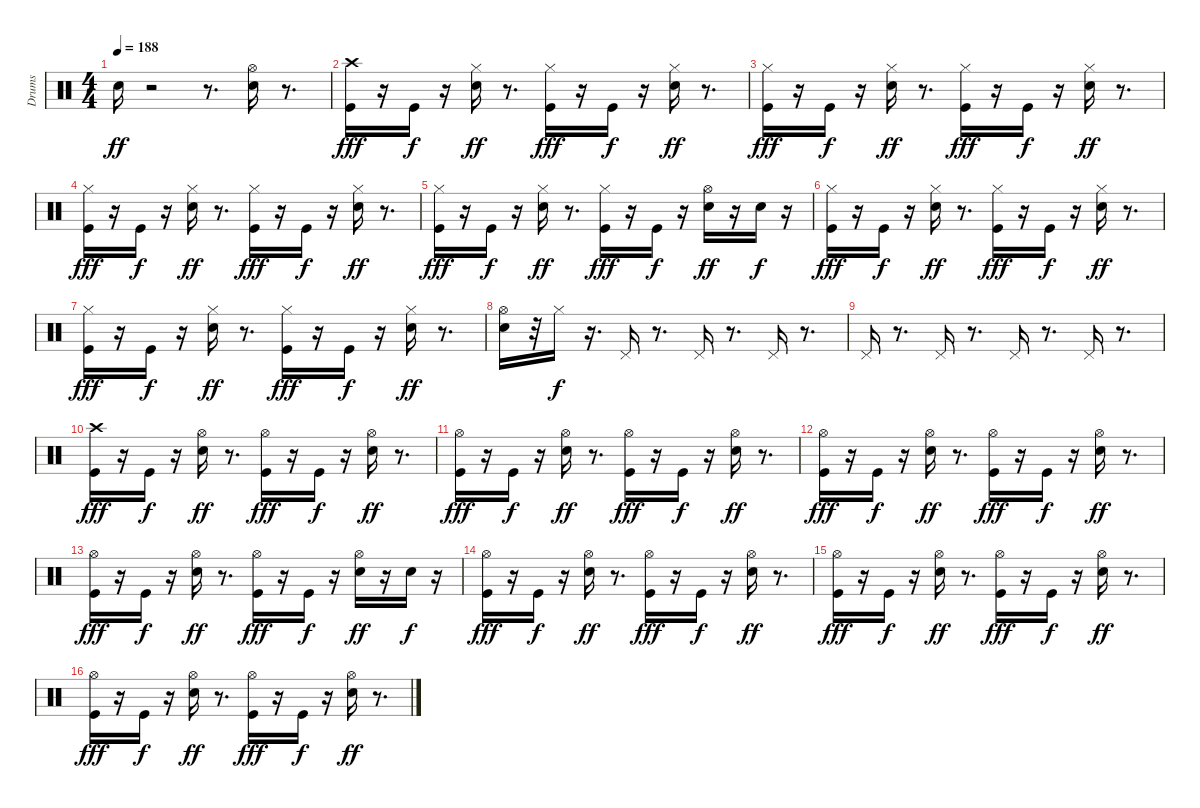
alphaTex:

\track ("Drums" "Drums") {instrument percussion}
\staff {score}
\articulation defaults
\ts (4 4)
\tempo 188
\clef neutral
\ks c "Electric Snare (hit)".16{dy ff}
r.2 r.8{d} ("Hi-Hat (open)" "Electric Snare (hit)").16 r.8{d} |
("Crash high (hit)" "Kick (hit)").16{dy fff} r.16 "Kick (hit)".16{dy f} r.16 ("Electric Snare (hit)" "Hi-Hat (closed)").16{dy ff} r.8{d} ("Hi-Hat (closed)" "Kick (hit)").16{dy fff} r.16 "Kick (hit)".16{dy f} r.16 ("Electric Snare (hit)" "Hi-Hat (closed)").16{dy ff} r.8{d} |
("Hi-Hat (closed)" "Kick (hit)").16{dy fff} r.16 "Kick (hit)".16{dy f} r.16 ("Electric Snare (hit)" "Hi-Hat (closed)").16{dy ff} r.8{d} ("Hi-Hat (closed)" "Kick (hit)").16{dy fff} r.16 "Kick (hit)".16{dy f} r.16 ("Electric Snare (hit)" "Hi-Hat (closed)").16{dy ff} r.8{d} |
("Hi-Hat (closed)" "Kick (hit)").16{dy fff} r.16 "Kick (hit)".16{dy f} r.16 ("Electric Snare (hit)" "Hi-Hat (closed)").16{dy ff} r.8{d} ("Hi-Hat (closed)" "Kick (hit)").16{dy fff} r.16 "Kick (hit)".16{dy f} r.16 ("Electric Snare (hit)" "Hi-Hat (closed)").16{dy ff} r.8{d} |
("Hi-Hat (closed)" "Kick (hit)").16{dy fff} r.16 "Kick (hit)".16{dy f} r.16 ("Electric Snare (hit)" "Hi-Hat (closed)").16{dy ff} r.8{d} ("Hi-Hat (closed)" "Kick (hit)").16{dy fff} r.16 "Kick (hit)".16{dy f} r.16 ("Electric Snare (hit)" "Hi-Hat (open)").16{dy ff} r.16 "Electric Snare (hit)".16{dy f} r.16 |
("Hi-Hat (closed)" "Kick (hit)").16{dy fff} r.16 "Kick (hit)".16{dy f} r.16 ("Electric Snare (hit)" "Hi-Hat (closed)").16{dy ff} r.8{d} ("Hi-Hat (closed)" "Kick (hit)").16{dy fff} r.16 "Kick (hit)".16{dy f} r.16 ("Electric Snare (hit)" "Hi-Hat (closed)").16{dy ff} r.8{d} |
("Hi-Hat (closed)" "Kick (hit)").16{dy fff} r.16 "Kick (hit)".16{dy f} r.16 ("Electric Snare (hit)" "Hi-Hat (closed)").16{dy ff} r.8{d} ("Hi-Hat (closed)" "Kick (hit)").16{dy fff} r.16 "Kick (hit)".16{dy f} r.16 ("Electric Snare (hit)" "Hi-Hat (closed)").16{dy ff} r.8{d} |
("Hi-Hat (open)" "Electric Snare (hit)").16 r.32 "Hi-Hat (closed)".16{dy f} r.16{d} "Pedal Hi-Hat (hit)".16 r.8{d} "Pedal Hi-Hat (hit)".16 r.8{d} "Pedal Hi-Hat (hit)".16 r.8{d} |
"Pedal Hi-Hat (hit)".16 r.8{d} "Pedal Hi-Hat (hit)".16 r.8{d} "Pedal Hi-Hat (hit)".16 r.8{d} "Pedal Hi-Hat (hit)".16 r.8{d} |
("Crash high (hit)" "Kick (hit)").16{dy fff} r.16 "Kick (hit)".16{dy f} r.16 ("Hi-Hat (open)" "Electric Snare (hit)").16{dy ff} r.8{d} ("Hi-Hat (open)" "Kick (hit)").16{dy fff} r.16 "Kick (hit)".16{dy f} r.16 ("Hi-Hat (open)" "Electric Snare (hit)").16{dy ff} r.8{d} |
("Hi-Hat (open)" "Kick (hit)").16{dy fff} r.16 "Kick (hit)".16{dy f} r.16 ("Hi-Hat (open)" "Electric Snare (hit)").16{dy ff} r.8{d} ("Hi-Hat (open)" "Kick (hit)").16{dy fff} r.16 "Kick (hit)".16{dy f} r.16 ("Hi-Hat (open)" "Electric Snare (hit)").16{dy ff} r.8{d} |
("Hi-Hat (open)" "Kick (hit)").16{dy fff} r.16 "Kick (hit)".16{dy f} r.16 ("Hi-Hat (open)" "Electric Snare (hit)").16{dy ff} r.8{d} ("Hi-Hat (open)" "Kick (hit)").16{dy fff} r.16 "Kick (hit)".16{dy f} r.16 ("Hi-Hat (open)" "Electric Snare (hit)").16{dy ff} r.8{d} |
("Hi-Hat (open)" "Kick (hit)").16{dy fff} r.16 "Kick (hit)".16{dy f} r.16 ("Hi-Hat (open)" "Electric Snare (hit)").16{dy ff} r.8{d} ("Hi-Hat (open)" "Kick (hit)").16{dy fff} r.16 "Kick (hit)".16{dy f} r.16 ("Electric Snare (hit)" "Hi-Hat (open)").16{dy ff} r.16 "Electric Snare (hit)".16{dy f} r.16 |
("Hi-Hat (open)" "Kick (hit)").16{dy fff} r.16 "Kick (hit)".16{dy f} r.16 ("Hi-Hat (open)" "Electric Snare (hit)").16{dy ff} r.8{d} ("Hi-Hat (open)" "Kick (hit)").16{dy fff} r.16 "Kick (hit)".16{dy f} r.16 ("Hi-Hat (open)" "Electric Snare (hit)").16{dy ff} r.8{d} |
("Hi-Hat (open)" "Kick (hit)").16{dy fff} r.16 "Kick (hit)".16{dy f} r.16 ("Hi-Hat (open)" "Electric Snare (hit)").16{dy ff} r.8{d} ("Hi-Hat (open)" "Kick (hit)").16{dy fff} r.16 "Kick (hit)".16{dy f} r.16 ("Hi-Hat (open)" "Electric Snare (hit)").16{dy ff} r.8{d} |
("Hi-Hat (open)" "Kick (hit)").16{dy fff} r.16 "Kick (hit)".16{dy f} r.16 ("Hi-Hat (open)" "Electric Snare (hit)").16{dy ff} r.8{d} ("Hi-Hat (open)" "Kick (hit)").16{dy fff} r.16 "Kick (hit)".16{dy f} r.16 ("Hi-Hat (open)" "Electric Snare (hit)").16{dy ff} r.8{d}
